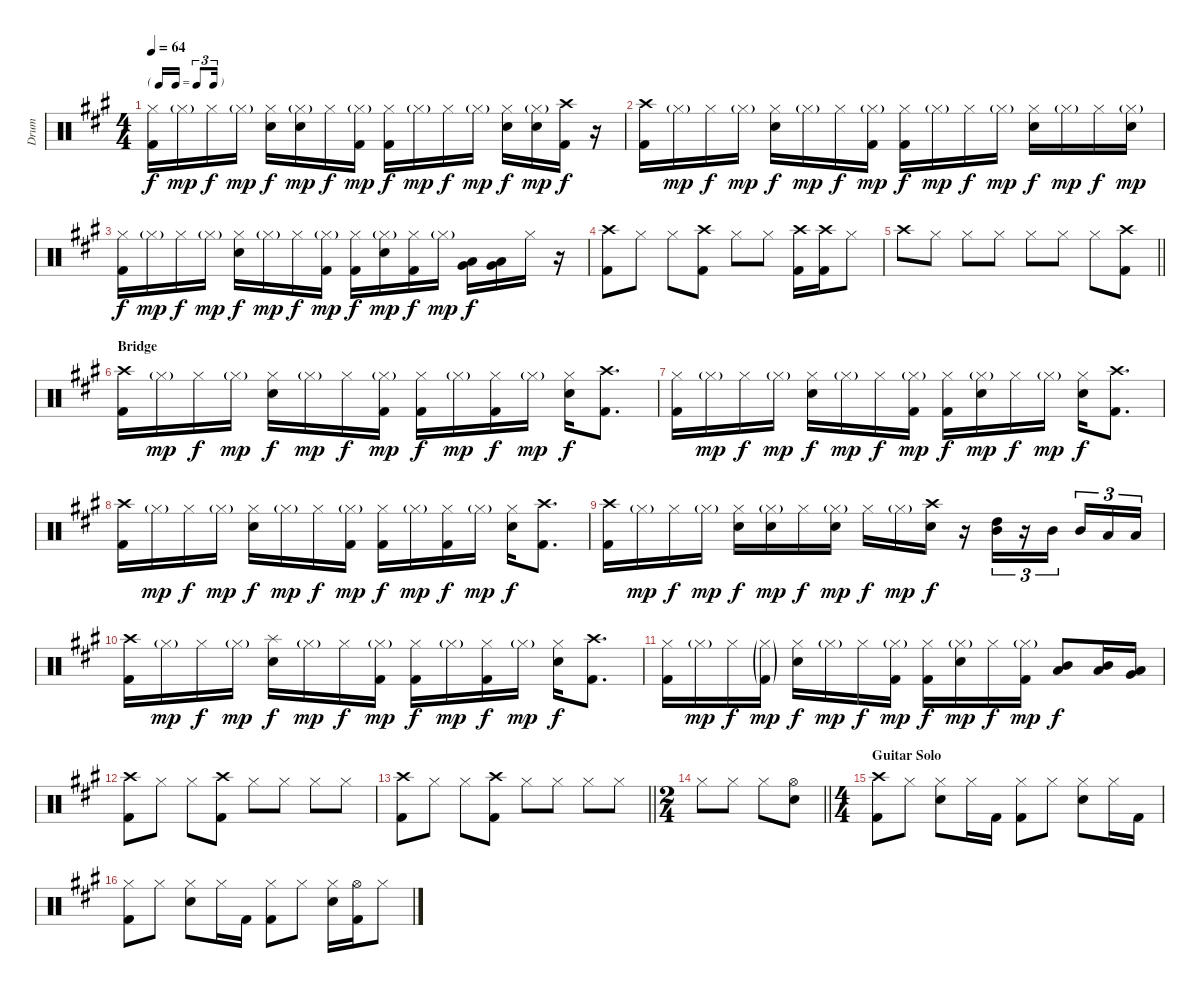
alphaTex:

\track ("Drum" "Drum") {instrument percussion}
\staff {score}
\articulation defaults
\ts (4 4)
\tf triplet16th
\tempo 64
\clef neutral
\ks a
("Hi-Hat (closed)" "Kick (hit) 2").16{dy f} "Hi-Hat (closed)"{g}.16{dy mp} "Hi-Hat (closed)".16{dy f} "Hi-Hat (closed)"{g}.16{dy mp} ("Hi-Hat (closed)" "Electric Snare (hit)").16{dy f} ("Hi-Hat (closed)"{g} "Electric Snare (hit)").16{dy mp} "Hi-Hat (closed)".16{dy f} ("Hi-Hat (closed)"{g} "Kick (hit) 2").16{dy mp} ("Hi-Hat (closed)" "Kick (hit) 2").16{dy f} "Hi-Hat (closed)"{g}.16{dy mp} "Hi-Hat (closed)".16{dy f} "Hi-Hat (closed)"{g}.16{dy mp} ("Hi-Hat (closed)" "Electric Snare (hit)").16{dy f} ("Hi-Hat (closed)"{g} "Electric Snare (hit)").16{dy mp} ("Crash high (hit)" "Kick (hit) 2").16{dy f} r.16 |
("Crash high (hit)" "Kick (hit) 2").16 "Hi-Hat (closed)"{g}.16{dy mp} "Hi-Hat (closed)".16{dy f} "Hi-Hat (closed)"{g}.16{dy mp} ("Hi-Hat (closed)" "Electric Snare (hit)").16{dy f} "Hi-Hat (closed)"{g}.16{dy mp} "Hi-Hat (closed)".16{dy f} ("Hi-Hat (closed)"{g} "Kick (hit) 2").16{dy mp} ("Hi-Hat (closed)" "Kick (hit) 2").16{dy f} "Hi-Hat (closed)"{g}.16{dy mp} "Hi-Hat (closed)".16{dy f} "Hi-Hat (closed)"{g}.16{dy mp} ("Hi-Hat (closed)" "Electric Snare (hit)").16{dy f} "Hi-Hat (closed)"{g}.16{dy mp} "Hi-Hat (closed)".16{dy f} ("Hi-Hat (closed)"{g} "Electric Snare (hit)").16{dy mp} |
("Hi-Hat (closed)" "Kick (hit) 2").16{dy f} "Hi-Hat (closed)"{g}.16{dy mp} "Hi-Hat (closed)".16{dy f} "Hi-Hat (closed)"{g}.16{dy mp} ("Hi-Hat (closed)" "Electric Snare (hit)").16{dy f} "Hi-Hat (closed)"{g}.16{dy mp} "Hi-Hat (closed)".16{dy f} ("Hi-Hat (closed)"{g} "Kick (hit) 2").16{dy mp} ("Hi-Hat (closed)" "Kick (hit) 2").16{dy f} ("Hi-Hat (closed)"{g} "Electric Snare (hit)").16{dy mp} ("Hi-Hat (closed)" "Kick (hit) 2").16{dy f} "Hi-Hat (closed)"{g}.16{dy mp} ("Low Tom (hit)" "Very Low Tom (hit)").16{dy f} ("Low Tom (hit)" "Very Low Tom (hit)").16 "Hi-Hat (closed)".16 r.16 |
("Crash high (hit)" "Kick (hit) 2").8 "Hi-Hat (closed)".8 "Hi-Hat (closed)".8 ("Crash high (hit)" "Kick (hit) 2").8 "Hi-Hat (closed)".8 "Hi-Hat (closed)".8 ("Crash high (hit)" "Kick (hit) 2").16 ("Crash high (hit)" "Kick (hit) 2").16 "Hi-Hat (closed)".8 |
\barLineRight lightlight "Crash high (hit)".8 "Hi-Hat (closed)".8 "Hi-Hat (closed)".8 "Hi-Hat (closed)".8 "Hi-Hat (closed)".8 "Hi-Hat (closed)".8 "Hi-Hat (closed)".8
("Crash high (hit)" "Kick (hit) 2").8 |
\section ("" "Bridge")
("Crash high (hit)" "Kick (hit) 2").16 "Hi-Hat (closed)"{g}.16{dy mp} "Hi-Hat (closed)".16{dy f} "Hi-Hat (closed)"{g}.16{dy mp} ("Hi-Hat (closed)" "Electric Snare (hit)").16{dy f} "Hi-Hat (closed)"{g}.16{dy mp} "Hi-Hat (closed)".16{dy f} ("Hi-Hat (closed)"{g} "Kick (hit) 2").16{dy mp} ("Hi-Hat (closed)" "Kick (hit) 2").16{dy f} "Hi-Hat (closed)"{g}.16{dy mp} ("Hi-Hat (closed)" "Kick (hit) 2").16{dy f} "Hi-Hat (closed)"{g}.16{dy mp} ("Hi-Hat (closed)" "Electric Snare (hit)").16{dy f} ("Crash high (hit)" "Kick (hit) 2").8{d} |
("Hi-Hat (closed)" "Kick (hit) 2").16 "Hi-Hat (closed)"{g}.16{dy mp} "Hi-Hat (closed)".16{dy f} "Hi-Hat (closed)"{g}.16{dy mp} ("Hi-Hat (closed)" "Electric Snare (hit)").16{dy f} "Hi-Hat (closed)"{g}.16{dy mp} "Hi-Hat (closed)".16{dy f} ("Hi-Hat (closed)"{g} "Kick (hit) 2").16{dy mp} ("Hi-Hat (closed)" "Kick (hit) 2").16{dy f} ("Hi-Hat (closed)"{g} "Electric Snare (hit)").16{dy mp} "Hi-Hat (closed)".16{dy f} "Hi-Hat (closed)"{g}.16{dy mp} ("Hi-Hat (closed)" "Electric Snare (hit)").16{dy f} ("Crash high (hit)" "Kick (hit) 2").8{d} |
("Crash high (hit)" "Kick (hit) 2").16 "Hi-Hat (closed)"{g}.16{dy mp} "Hi-Hat (closed)".16{dy f} "Hi-Hat (closed)"{g}.16{dy mp} ("Hi-Hat (closed)" "Electric Snare (hit)").16{dy f} "Hi-Hat (closed)"{g}.16{dy mp} "Hi-Hat (closed)".16{dy f} ("Hi-Hat (closed)"{g} "Kick (hit) 2").16{dy mp} ("Hi-Hat (closed)" "Kick (hit) 2").16{dy f} "Hi-Hat (closed)"{g}.16{dy mp} ("Hi-Hat (closed)" "Kick (hit) 2").16{dy f} "Hi-Hat (closed)"{g}.16{dy mp} ("Hi-Hat (closed)" "Electric Snare (hit)").16{dy f} ("Crash high (hit)" "Kick (hit) 2").8{d} |
("Crash high (hit)" "Kick (hit) 2").16 "Hi-Hat (closed)"{g}.16{dy mp} "Hi-Hat (closed)".16{dy f} "Hi-Hat (closed)"{g}.16{dy mp} ("Hi-Hat (closed)" "Electric Snare (hit)").16{dy f} ("Hi-Hat (closed)"{g} "Electric Snare (hit)").16{dy mp} "Hi-Hat (closed)".16{dy f} ("Hi-Hat (closed)"{g} "Electric Snare (hit)").16{dy mp} "Hi-Hat (closed)".16{dy f} "Hi-Hat (closed)"{g}.16{dy mp} ("Crash high (hit)" "Electric Snare (hit)").16{dy f} r.16 ("High Tom (hit)" "Mid Tom (hit)").16{tu (3 2)} r.16{tu (3 2)} "Mid Tom (hit)".16{tu (3 2) beam splitsecondary} "Mid Tom (hit)".16{tu (3 2)} "Low Tom (hit)".16{tu (3 2)} "Low Tom (hit)".16{tu (3 2)} |
("Crash high (hit)" "Kick (hit) 2").16 "Hi-Hat (closed)"{g}.16{dy mp} "Hi-Hat (closed)".16{dy f} "Hi-Hat (closed)"{g}.16{dy mp} ("Splash (hit)" "Electric Snare (hit)").16{dy f} "Hi-Hat (closed)"{g}.16{dy mp} "Hi-Hat (closed)".16{dy f} ("Hi-Hat (closed)"{g} "Kick (hit) 2").16{dy mp} ("Hi-Hat (closed)" "Kick (hit) 2").16{dy f} "Hi-Hat (closed)"{g}.16{dy mp} ("Hi-Hat (closed)" "Kick (hit) 2").16{dy f} "Hi-Hat (closed)"{g}.16{dy mp} ("Hi-Hat (closed)" "Electric Snare (hit)").16{dy f} ("Crash high (hit)" "Kick (hit) 2").8{d} |
("Hi-Hat (closed)" "Kick (hit) 2").16 "Hi-Hat (closed)"{g}.16{dy mp} "Hi-Hat (closed)".16{dy f} ("Hi-Hat (closed)"{g} "Kick (hit) 2"{g}).16{dy mp} ("Hi-Hat (closed)" "Electric Snare (hit)").16{dy f} "Hi-Hat (closed)"{g}.16{dy mp} "Hi-Hat (closed)".16{dy f} ("Hi-Hat (closed)"{g} "Kick (hit) 2").16{dy mp} ("Hi-Hat (closed)" "Kick (hit) 2").16{dy f} ("Hi-Hat (closed)"{g} "Electric Snare (hit)").16{dy mp} "Hi-Hat (closed)".16{dy f} ("Hi-Hat (closed)"{g} "Kick (hit) 2").16{dy mp} ("Low Tom (hit)" "Mid Tom (hit)").8{dy f} ("Mid Tom (hit)" "Low Tom (hit)").16 ("Low Tom (hit)" "Very Low Tom (hit)").16 |
("Crash high (hit)" "Kick (hit) 2").8 "Hi-Hat (closed)".8 "Hi-Hat (closed)".8 ("Crash high (hit)" "Kick (hit) 2").8 "Hi-Hat (closed)".8 "Hi-Hat (closed)".8 "Hi-Hat (closed)".8 "Hi-Hat (closed)".8 |
\barLineRight lightlight
("Crash high (hit)" "Kick (hit) 2").8 "Hi-Hat (closed)".8 "Hi-Hat (closed)".8 ("Crash high (hit)" "Kick (hit) 2").8 "Hi-Hat (closed)".8 "Hi-Hat (closed)".8 "Hi-Hat (closed)".8 "Hi-Hat (closed)".8 |
\ts (2 4)
\barLineRight lightlight "Hi-Hat (closed)".8 "Hi-Hat (closed)".8 "Hi-Hat (closed)".8
("Hi-Hat (open)" "Electric Snare (hit)").8 |
\ts (4 4)
\section ("" "Guitar Solo")
("Crash high (hit)" "Kick (hit) 2").8 "Hi-Hat (closed)".8 ("Hi-Hat (closed)" "Electric Snare (hit)").8 "Hi-Hat (closed)".16 "Kick (hit) 2".16 ("Hi-Hat (closed)" "Kick (hit) 2").8 "Hi-Hat (closed)".8 ("Hi-Hat (closed)" "Electric Snare (hit)").8 "Hi-Hat (closed)".16 "Kick (hit) 2".16 |
("Hi-Hat (closed)" "Kick (hit) 2").8 "Hi-Hat (closed)".8 ("Hi-Hat (closed)" "Electric Snare (hit)").8 "Hi-Hat (closed)".16 "Kick (hit) 2".16 ("Hi-Hat (closed)" "Kick (hit) 2").8 "Hi-Hat (closed)".8 ("Hi-Hat (closed)" "Electric Snare (hit)").16 ("Hi-Hat (open)" "Kick (hit) 2").16 "Hi-Hat (closed)".8
